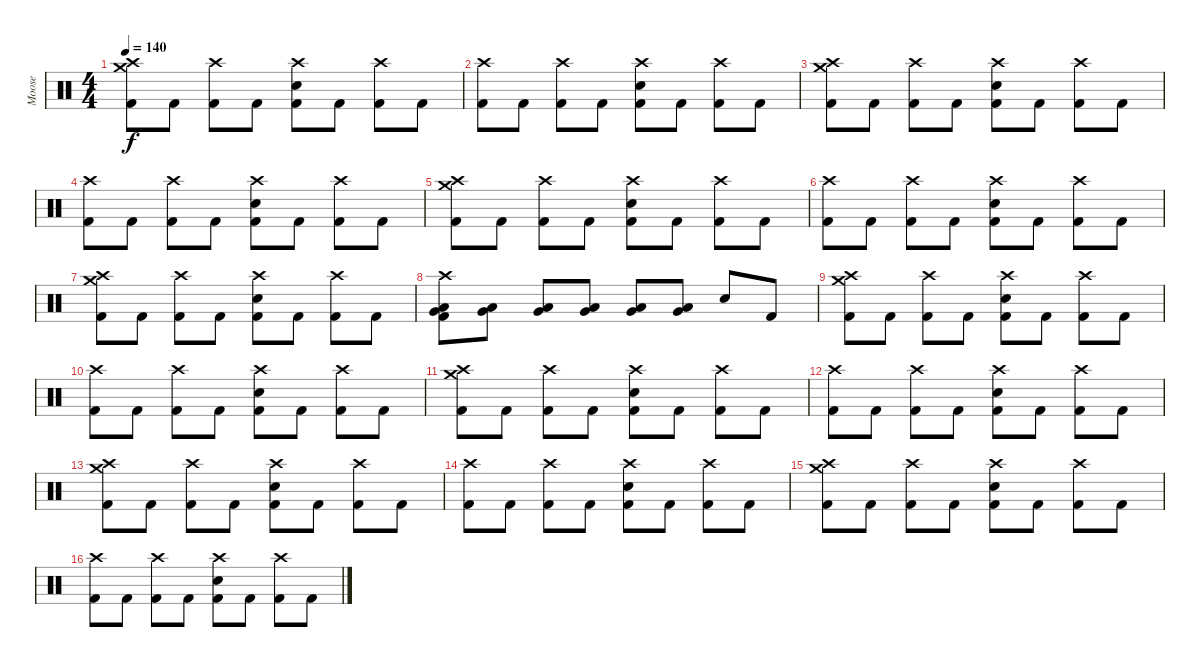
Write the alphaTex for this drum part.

\track ("Moose" "Moose") {instrument percussion}
\staff {score}
\articulation defaults
\ts (4 4)
\tempo 140
\clef neutral
\ks c
("Crash high (hit)" "Crash medium (hit)" "Kick (hit) 2").8{dy f} "Kick (hit) 2".8 ("Crash high (hit)" "Kick (hit) 2").8 "Kick (hit) 2".8 ("Crash high (hit)" "Snare (hit) 2" "Kick (hit) 2").8 "Kick (hit) 2".8 ("Crash high (hit)" "Kick (hit) 2").8 "Kick (hit) 2".8 |
("Crash high (hit)" "Kick (hit) 2").8 "Kick (hit) 2".8 ("Crash high (hit)" "Kick (hit) 2").8 "Kick (hit) 2".8 ("Crash high (hit)" "Snare (hit) 2" "Kick (hit) 2").8 "Kick (hit) 2".8 ("Crash high (hit)" "Kick (hit) 2").8 "Kick (hit) 2".8 |
("Crash high (hit)" "Crash medium (hit)" "Kick (hit) 2").8 "Kick (hit) 2".8 ("Crash high (hit)" "Kick (hit) 2").8 "Kick (hit) 2".8 ("Crash high (hit)" "Snare (hit) 2" "Kick (hit) 2").8 "Kick (hit) 2".8 ("Crash high (hit)" "Kick (hit) 2").8 "Kick (hit) 2".8 |
("Crash high (hit)" "Kick (hit) 2").8 "Kick (hit) 2".8 ("Crash high (hit)" "Kick (hit) 2").8 "Kick (hit) 2".8 ("Crash high (hit)" "Snare (hit) 2" "Kick (hit) 2").8 "Kick (hit) 2".8 ("Crash high (hit)" "Kick (hit) 2").8 "Kick (hit) 2".8 |
("Crash high (hit)" "Crash medium (hit)" "Kick (hit) 2").8 "Kick (hit) 2".8 ("Crash high (hit)" "Kick (hit) 2").8 "Kick (hit) 2".8 ("Crash high (hit)" "Snare (hit) 2" "Kick (hit) 2").8 "Kick (hit) 2".8 ("Crash high (hit)" "Kick (hit) 2").8 "Kick (hit) 2".8 |
("Crash high (hit)" "Kick (hit) 2").8 "Kick (hit) 2".8 ("Crash high (hit)" "Kick (hit) 2").8 "Kick (hit) 2".8 ("Crash high (hit)" "Snare (hit) 2" "Kick (hit) 2").8 "Kick (hit) 2".8 ("Crash high (hit)" "Kick (hit) 2").8 "Kick (hit) 2".8 |
("Crash high (hit)" "Crash medium (hit)" "Kick (hit) 2").8 "Kick (hit) 2".8 ("Crash high (hit)" "Kick (hit) 2").8 "Kick (hit) 2".8 ("Crash high (hit)" "Snare (hit) 2" "Kick (hit) 2").8 "Kick (hit) 2".8 ("Crash high (hit)" "Kick (hit) 2").8 "Kick (hit) 2".8 |
("Crash high (hit)" "Low Floor Tom (hit)" "Very Low Tom (hit)" "Kick (hit) 2").8 ("Low Floor Tom (hit)" "Very Low Tom (hit)").8 ("Low Floor Tom (hit)" "Very Low Tom (hit)").8 ("Low Floor Tom (hit)" "Very Low Tom (hit)").8 ("Low Floor Tom (hit)" "Very Low Tom (hit)").8 ("Low Floor Tom (hit)" "Very Low Tom (hit)").8 "Snare (hit) 2".8 "Kick (hit) 2".8 |
("Crash high (hit)" "Crash medium (hit)" "Kick (hit) 2").8 "Kick (hit) 2".8 ("Crash high (hit)" "Kick (hit) 2").8 "Kick (hit) 2".8 ("Crash high (hit)" "Snare (hit) 2" "Kick (hit) 2").8 "Kick (hit) 2".8 ("Crash high (hit)" "Kick (hit) 2").8 "Kick (hit) 2".8 |
("Crash high (hit)" "Kick (hit) 2").8 "Kick (hit) 2".8 ("Crash high (hit)" "Kick (hit) 2").8 "Kick (hit) 2".8 ("Crash high (hit)" "Snare (hit) 2" "Kick (hit) 2").8 "Kick (hit) 2".8 ("Crash high (hit)" "Kick (hit) 2").8 "Kick (hit) 2".8 |
("Crash high (hit)" "Crash medium (hit)" "Kick (hit) 2").8 "Kick (hit) 2".8 ("Crash high (hit)" "Kick (hit) 2").8 "Kick (hit) 2".8 ("Crash high (hit)" "Snare (hit) 2" "Kick (hit) 2").8 "Kick (hit) 2".8 ("Crash high (hit)" "Kick (hit) 2").8 "Kick (hit) 2".8 |
("Crash high (hit)" "Kick (hit) 2").8 "Kick (hit) 2".8 ("Crash high (hit)" "Kick (hit) 2").8 "Kick (hit) 2".8 ("Crash high (hit)" "Snare (hit) 2" "Kick (hit) 2").8 "Kick (hit) 2".8 ("Crash high (hit)" "Kick (hit) 2").8 "Kick (hit) 2".8 |
("Crash high (hit)" "Crash medium (hit)" "Kick (hit) 2").8 "Kick (hit) 2".8 ("Crash high (hit)" "Kick (hit) 2").8 "Kick (hit) 2".8 ("Crash high (hit)" "Snare (hit) 2" "Kick (hit) 2").8 "Kick (hit) 2".8 ("Crash high (hit)" "Kick (hit) 2").8 "Kick (hit) 2".8 |
("Crash high (hit)" "Kick (hit) 2").8 "Kick (hit) 2".8 ("Crash high (hit)" "Kick (hit) 2").8 "Kick (hit) 2".8 ("Crash high (hit)" "Snare (hit) 2" "Kick (hit) 2").8 "Kick (hit) 2".8 ("Crash high (hit)" "Kick (hit) 2").8 "Kick (hit) 2".8 |
("Crash high (hit)" "Crash medium (hit)" "Kick (hit) 2").8 "Kick (hit) 2".8 ("Crash high (hit)" "Kick (hit) 2").8 "Kick (hit) 2".8 ("Crash high (hit)" "Snare (hit) 2" "Kick (hit) 2").8 "Kick (hit) 2".8 ("Crash high (hit)" "Kick (hit) 2").8 "Kick (hit) 2".8 |
("Crash high (hit)" "Kick (hit) 2").8 "Kick (hit) 2".8 ("Crash high (hit)" "Kick (hit) 2").8 "Kick (hit) 2".8 ("Crash high (hit)" "Snare (hit) 2" "Kick (hit) 2").8 "Kick (hit) 2".8 ("Crash high (hit)" "Kick (hit) 2").8 "Kick (hit) 2".8
